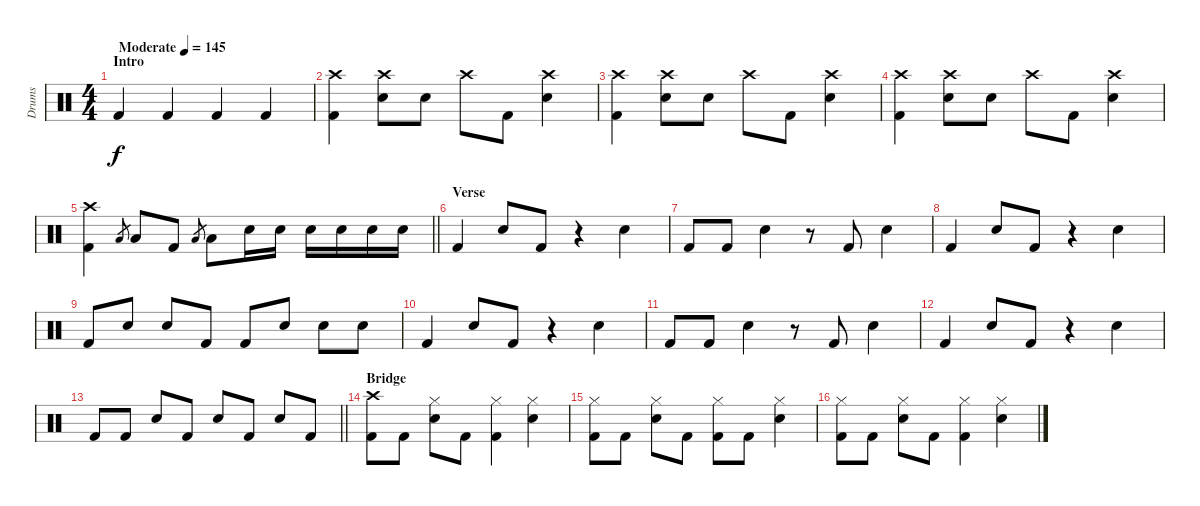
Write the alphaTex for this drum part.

\track ("Drums" "Drums") {instrument percussion}
\staff {score}
\articulation defaults
\ts (4 4)
\section ("" "Intro")
\tempo (145 "Moderate")
\clef neutral
\ks c "Kick (hit) 2".4{dy f} "Kick (hit) 2".4 "Kick (hit) 2".4 "Kick (hit) 2".4
|
("Crash high (hit)" "Kick (hit) 2").4 ("Crash high (hit)" "Electric Snare (hit)").8 "Electric Snare (hit)".8 "Crash high (hit)".8 "Kick (hit) 2".8 ("Crash high (hit)" "Electric Snare (hit)").4 |
("Crash high (hit)" "Kick (hit) 2").4 ("Crash high (hit)" "Electric Snare (hit)").8 "Electric Snare (hit)".8 "Crash high (hit)".8 "Kick (hit) 2".8 ("Crash high (hit)" "Electric Snare (hit)").4 |
("Crash high (hit)" "Kick (hit) 2").4 ("Crash high (hit)" "Electric Snare (hit)").8 "Electric Snare (hit)".8 "Crash high (hit)".8 "Kick (hit) 2".8 ("Crash high (hit)" "Electric Snare (hit)").4 |
\barLineRight lightlight
("Crash high (hit)" "Kick (hit) 2").4 "Low Tom (hit)".8{gr} "Low Tom (hit)".8 "Kick (hit) 2".8 "Low Tom (hit)".8{gr} "Low Tom (hit)".8 "Electric Snare (hit)".16 "Electric Snare (hit)".16 "Electric Snare (hit)".16 "Electric Snare (hit)".16 "Electric Snare (hit)".16 "Electric Snare (hit)".16 |
\section ("" "Verse")
"Kick (hit) 2".4 "Electric Snare (hit)".8 "Kick (hit) 2".8 r.4 "Electric Snare (hit)".4 |
"Kick (hit) 2".8 "Kick (hit) 2".8 "Electric Snare (hit)".4 r.8 "Kick (hit) 2".8 "Electric Snare (hit)".4 |
"Kick (hit) 2".4 "Electric Snare (hit)".8 "Kick (hit) 2".8 r.4 "Electric Snare (hit)".4 |
"Kick (hit) 2".8 "Electric Snare (hit)".8 "Electric Snare (hit)".8 "Kick (hit) 2".8 "Kick (hit) 2".8 "Electric Snare (hit)".8 "Electric Snare (hit)".8 "Electric Snare (hit)".8 |
"Kick (hit) 2".4 "Electric Snare (hit)".8 "Kick (hit) 2".8 r.4 "Electric Snare (hit)".4 |
"Kick (hit) 2".8 "Kick (hit) 2".8 "Electric Snare (hit)".4 r.8 "Kick (hit) 2".8 "Electric Snare (hit)".4 |
"Kick (hit) 2".4 "Electric Snare (hit)".8 "Kick (hit) 2".8 r.4 "Electric Snare (hit)".4 |
\barLineRight lightlight "Kick (hit) 2".8 "Kick (hit) 2".8 "Electric Snare (hit)".8 "Kick (hit) 2".8 "Electric Snare (hit)".8 "Kick (hit) 2".8 "Electric Snare (hit)".8 "Kick (hit) 2".8
|
\section ("" "Bridge")
("Crash high (hit)" "Kick (hit) 2").8 "Kick (hit) 2".8 ("Hi-Hat (closed)" "Electric Snare (hit)").8 "Kick (hit) 2".8 ("Hi-Hat (closed)" "Kick (hit) 2").4 ("Hi-Hat (closed)" "Electric Snare (hit)").4 |
("Hi-Hat (closed)" "Kick (hit) 2").8 "Kick (hit) 2".8 ("Hi-Hat (closed)" "Electric Snare (hit)").8 "Kick (hit) 2".8 ("Hi-Hat (closed)" "Kick (hit) 2").8 "Kick (hit) 2".8 ("Hi-Hat (closed)" "Electric Snare (hit)").4 |
("Hi-Hat (closed)" "Kick (hit) 2").8 "Kick (hit) 2".8 ("Hi-Hat (closed)" "Electric Snare (hit)").8 "Kick (hit) 2".8 ("Hi-Hat (closed)" "Kick (hit) 2").4 ("Hi-Hat (closed)" "Electric Snare (hit)").4
